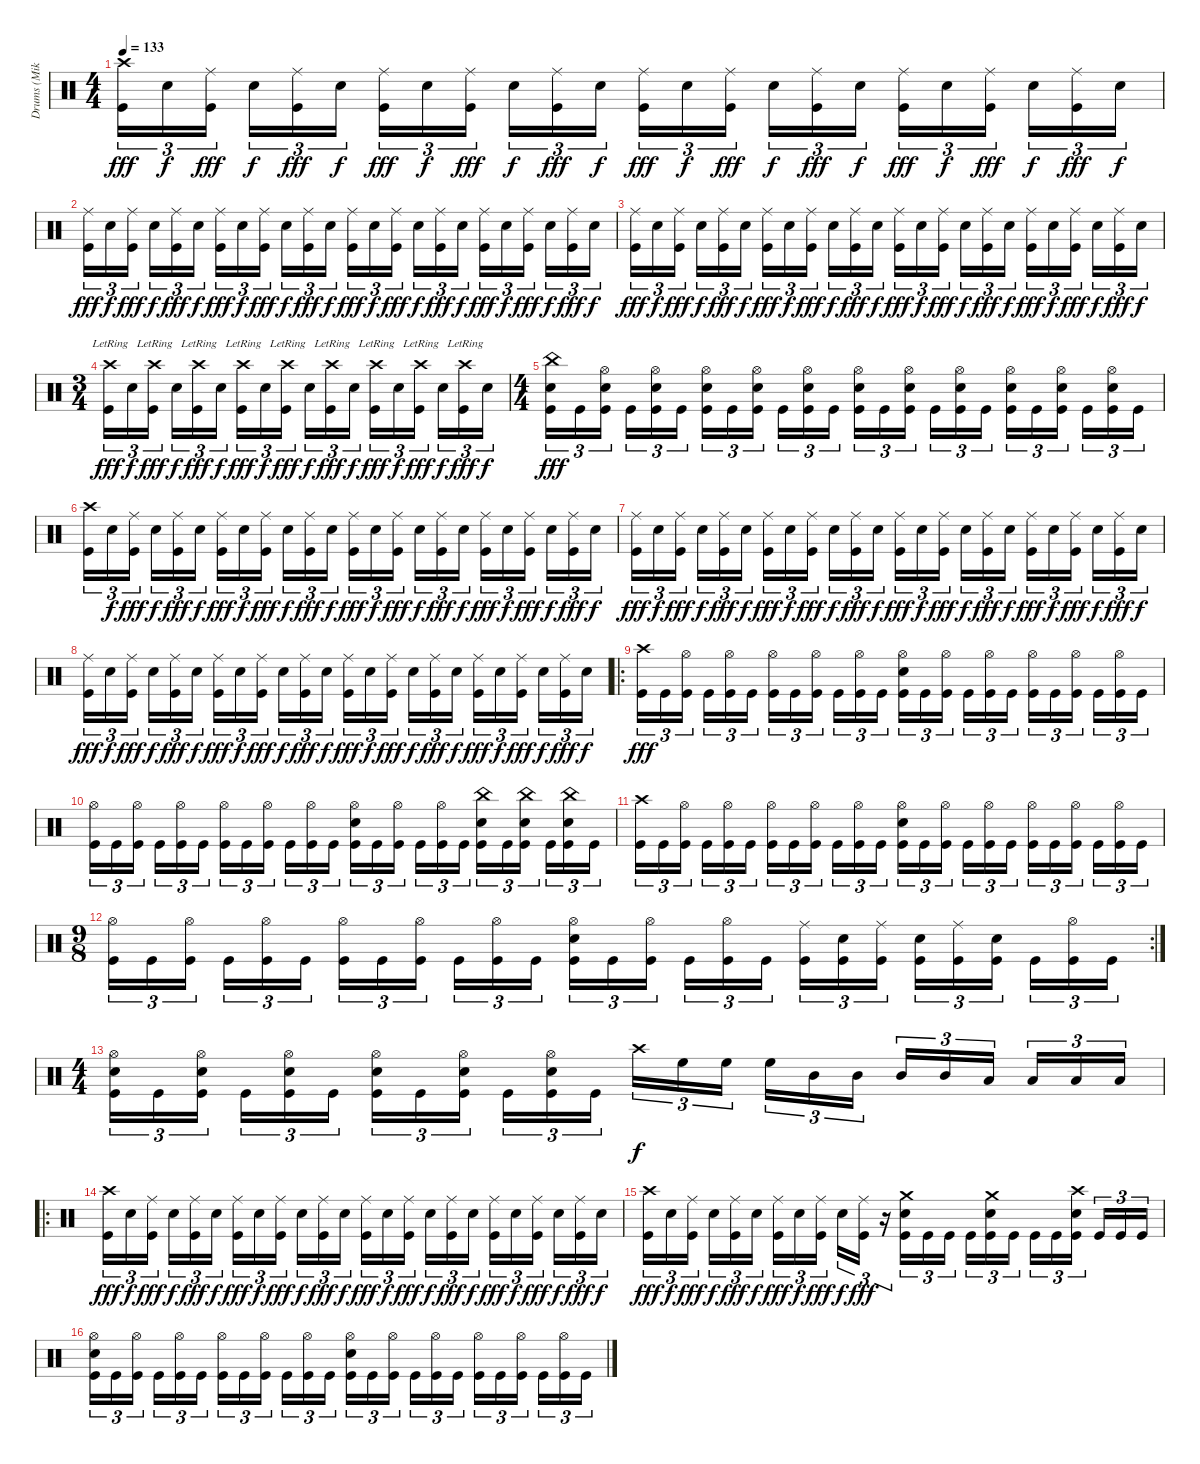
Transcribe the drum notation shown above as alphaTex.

\track ("Drums (Mike)" "Drums (Mik") {instrument percussion}
\staff {score}
\articulation defaults
\ts (4 4)
\tempo 133
\clef neutral
\ks c
("Crash high (hit)" "Kick (hit)").16{tu (3 2) dy fff} "Electric Snare (hit)".16{tu (3 2) dy f} ("Ride (middle)" "Kick (hit)").16{tu (3 2) dy fff} "Electric Snare (hit)".16{tu (3 2) dy f} ("Ride (middle)" "Kick (hit)").16{tu (3 2) dy fff} "Electric Snare (hit)".16{tu (3 2) dy f} ("Ride (middle)" "Kick (hit)").16{tu (3 2) dy fff} "Electric Snare (hit)".16{tu (3 2) dy f} ("Ride (middle)" "Kick (hit)").16{tu (3 2) dy fff} "Electric Snare (hit)".16{tu (3 2) dy f} ("Ride (middle)" "Kick (hit)").16{tu (3 2) dy fff} "Electric Snare (hit)".16{tu (3 2) dy f} ("Ride (middle)" "Kick (hit)").16{tu (3 2) dy fff} "Electric Snare (hit)".16{tu (3 2) dy f} ("Ride (middle)" "Kick (hit)").16{tu (3 2) dy fff} "Electric Snare (hit)".16{tu (3 2) dy f} ("Ride (middle)" "Kick (hit)").16{tu (3 2) dy fff} "Electric Snare (hit)".16{tu (3 2) dy f} ("Ride (middle)" "Kick (hit)").16{tu (3 2) dy fff} "Electric Snare (hit)".16{tu (3 2) dy f} ("Ride (middle)" "Kick (hit)").16{tu (3 2) dy fff} "Electric Snare (hit)".16{tu (3 2) dy f} ("Ride (middle)" "Kick (hit)").16{tu (3 2) dy fff} "Electric Snare (hit)".16{tu (3 2) dy f} |
("Ride (middle)" "Kick (hit)").16{tu (3 2) dy fff} "Electric Snare (hit)".16{tu (3 2) dy f} ("Ride (middle)" "Kick (hit)").16{tu (3 2) dy fff} "Electric Snare (hit)".16{tu (3 2) dy f} ("Ride (middle)" "Kick (hit)").16{tu (3 2) dy fff} "Electric Snare (hit)".16{tu (3 2) dy f} ("Ride (middle)" "Kick (hit)").16{tu (3 2) dy fff} "Electric Snare (hit)".16{tu (3 2) dy f} ("Ride (middle)" "Kick (hit)").16{tu (3 2) dy fff} "Electric Snare (hit)".16{tu (3 2) dy f} ("Ride (middle)" "Kick (hit)").16{tu (3 2) dy fff} "Electric Snare (hit)".16{tu (3 2) dy f} ("Ride (middle)" "Kick (hit)").16{tu (3 2) dy fff} "Electric Snare (hit)".16{tu (3 2) dy f} ("Ride (middle)" "Kick (hit)").16{tu (3 2) dy fff} "Electric Snare (hit)".16{tu (3 2) dy f} ("Ride (middle)" "Kick (hit)").16{tu (3 2) dy fff} "Electric Snare (hit)".16{tu (3 2) dy f} ("Ride (middle)" "Kick (hit)").16{tu (3 2) dy fff} "Electric Snare (hit)".16{tu (3 2) dy f} ("Ride (middle)" "Kick (hit)").16{tu (3 2) dy fff} "Electric Snare (hit)".16{tu (3 2) dy f} ("Ride (middle)" "Kick (hit)").16{tu (3 2) dy fff} "Electric Snare (hit)".16{tu (3 2) dy f} |
("Ride (middle)" "Kick (hit)").16{tu (3 2) dy fff} "Electric Snare (hit)".16{tu (3 2) dy f} ("Ride (middle)" "Kick (hit)").16{tu (3 2) dy fff} "Electric Snare (hit)".16{tu (3 2) dy f} ("Ride (middle)" "Kick (hit)").16{tu (3 2) dy fff} "Electric Snare (hit)".16{tu (3 2) dy f} ("Ride (middle)" "Kick (hit)").16{tu (3 2) dy fff} "Electric Snare (hit)".16{tu (3 2) dy f} ("Ride (middle)" "Kick (hit)").16{tu (3 2) dy fff} "Electric Snare (hit)".16{tu (3 2) dy f} ("Ride (middle)" "Kick (hit)").16{tu (3 2) dy fff} "Electric Snare (hit)".16{tu (3 2) dy f} ("Ride (middle)" "Kick (hit)").16{tu (3 2) dy fff} "Electric Snare (hit)".16{tu (3 2) dy f} ("Ride (middle)" "Kick (hit)").16{tu (3 2) dy fff} "Electric Snare (hit)".16{tu (3 2) dy f} ("Ride (middle)" "Kick (hit)").16{tu (3 2) dy fff} "Electric Snare (hit)".16{tu (3 2) dy f} ("Ride (middle)" "Kick (hit)").16{tu (3 2) dy fff} "Electric Snare (hit)".16{tu (3 2) dy f} ("Ride (middle)" "Kick (hit)").16{tu (3 2) dy fff} "Electric Snare (hit)".16{tu (3 2) dy f} ("Ride (middle)" "Kick (hit)").16{tu (3 2) dy fff} "Electric Snare (hit)".16{tu (3 2) dy f} |
\ts (3 4)
("Crash high (hit)"{lr} "Kick (hit)").16{tu (3 2) dy fff} "Electric Snare (hit)".16{tu (3 2) dy f} ("Crash high (hit)"{lr} "Kick (hit)").16{tu (3 2) dy fff} "Electric Snare (hit)".16{tu (3 2) dy f} ("Crash high (hit)"{lr} "Kick (hit)").16{tu (3 2) dy fff} "Electric Snare (hit)".16{tu (3 2) dy f} ("Crash high (hit)"{lr} "Kick (hit)").16{tu (3 2) dy fff} "Electric Snare (hit)".16{tu (3 2) dy f} ("Crash high (hit)"{lr} "Kick (hit)").16{tu (3 2) dy fff} "Electric Snare (hit)".16{tu (3 2) dy f} ("Crash high (hit)"{lr} "Kick (hit)").16{tu (3 2) dy fff} "Electric Snare (hit)".16{tu (3 2) dy f} ("Crash high (hit)"{lr} "Kick (hit)").16{tu (3 2) dy fff} "Electric Snare (hit)".16{tu (3 2) dy f} ("Crash high (hit)"{lr} "Kick (hit)").16{tu (3 2) dy fff} "Electric Snare (hit)".16{tu (3 2) dy f} ("Crash high (hit)"{lr} "Kick (hit)").16{tu (3 2) dy fff} "Electric Snare (hit)".16{tu (3 2) dy f} |
\ts (4 4)
("China (hit)" "Electric Snare (hit)" "Kick (hit)").16{tu (3 2) dy fff} "Kick (hit)".16{tu (3 2)} ("Hi-Hat (open)" "Electric Snare (hit)" "Kick (hit)").16{tu (3 2)} "Kick (hit)".16{tu (3 2)} ("Hi-Hat (open)" "Electric Snare (hit)" "Kick (hit)").16{tu (3 2)} "Kick (hit)".16{tu (3 2)} ("Hi-Hat (open)" "Electric Snare (hit)" "Kick (hit)").16{tu (3 2)} "Kick (hit)".16{tu (3 2)} ("Hi-Hat (open)" "Electric Snare (hit)" "Kick (hit)").16{tu (3 2)} "Kick (hit)".16{tu (3 2)} ("Hi-Hat (open)" "Electric Snare (hit)" "Kick (hit)").16{tu (3 2)} "Kick (hit)".16{tu (3 2)} ("Hi-Hat (open)" "Electric Snare (hit)" "Kick (hit)").16{tu (3 2)} "Kick (hit)".16{tu (3 2)} ("Hi-Hat (open)" "Electric Snare (hit)" "Kick (hit)").16{tu (3 2)} "Kick (hit)".16{tu (3 2)} ("Hi-Hat (open)" "Electric Snare (hit)" "Kick (hit)").16{tu (3 2)} "Kick (hit)".16{tu (3 2)} ("Hi-Hat (open)" "Electric Snare (hit)" "Kick (hit)").16{tu (3 2)} "Kick (hit)".16{tu (3 2)} ("Hi-Hat (open)" "Electric Snare (hit)" "Kick (hit)").16{tu (3 2)} "Kick (hit)".16{tu (3 2)} ("Hi-Hat (open)" "Electric Snare (hit)" "Kick (hit)").16{tu (3 2)} "Kick (hit)".16{tu (3 2)} |
("Crash high (hit)" "Kick (hit)").16{tu (3 2)} "Electric Snare (hit)".16{tu (3 2) dy f} ("Ride (middle)" "Kick (hit)").16{tu (3 2) dy fff} "Electric Snare (hit)".16{tu (3 2) dy f} ("Ride (middle)" "Kick (hit)").16{tu (3 2) dy fff} "Electric Snare (hit)".16{tu (3 2) dy f} ("Ride (middle)" "Kick (hit)").16{tu (3 2) dy fff} "Electric Snare (hit)".16{tu (3 2) dy f} ("Ride (middle)" "Kick (hit)").16{tu (3 2) dy fff} "Electric Snare (hit)".16{tu (3 2) dy f} ("Ride (middle)" "Kick (hit)").16{tu (3 2) dy fff} "Electric Snare (hit)".16{tu (3 2) dy f} ("Ride (middle)" "Kick (hit)").16{tu (3 2) dy fff} "Electric Snare (hit)".16{tu (3 2) dy f} ("Ride (middle)" "Kick (hit)").16{tu (3 2) dy fff} "Electric Snare (hit)".16{tu (3 2) dy f} ("Ride (middle)" "Kick (hit)").16{tu (3 2) dy fff} "Electric Snare (hit)".16{tu (3 2) dy f} ("Ride (middle)" "Kick (hit)").16{tu (3 2) dy fff} "Electric Snare (hit)".16{tu (3 2) dy f} ("Ride (middle)" "Kick (hit)").16{tu (3 2) dy fff} "Electric Snare (hit)".16{tu (3 2) dy f} ("Ride (middle)" "Kick (hit)").16{tu (3 2) dy fff} "Electric Snare (hit)".16{tu (3 2) dy f} |
("Ride (middle)" "Kick (hit)").16{tu (3 2) dy fff} "Electric Snare (hit)".16{tu (3 2) dy f} ("Ride (middle)" "Kick (hit)").16{tu (3 2) dy fff} "Electric Snare (hit)".16{tu (3 2) dy f} ("Ride (middle)" "Kick (hit)").16{tu (3 2) dy fff} "Electric Snare (hit)".16{tu (3 2) dy f} ("Ride (middle)" "Kick (hit)").16{tu (3 2) dy fff} "Electric Snare (hit)".16{tu (3 2) dy f} ("Ride (middle)" "Kick (hit)").16{tu (3 2) dy fff} "Electric Snare (hit)".16{tu (3 2) dy f} ("Ride (middle)" "Kick (hit)").16{tu (3 2) dy fff} "Electric Snare (hit)".16{tu (3 2) dy f} ("Ride (middle)" "Kick (hit)").16{tu (3 2) dy fff} "Electric Snare (hit)".16{tu (3 2) dy f} ("Ride (middle)" "Kick (hit)").16{tu (3 2) dy fff} "Electric Snare (hit)".16{tu (3 2) dy f} ("Ride (middle)" "Kick (hit)").16{tu (3 2) dy fff} "Electric Snare (hit)".16{tu (3 2) dy f} ("Ride (middle)" "Kick (hit)").16{tu (3 2) dy fff} "Electric Snare (hit)".16{tu (3 2) dy f} ("Ride (middle)" "Kick (hit)").16{tu (3 2) dy fff} "Electric Snare (hit)".16{tu (3 2) dy f} ("Ride (middle)" "Kick (hit)").16{tu (3 2) dy fff} "Electric Snare (hit)".16{tu (3 2) dy f} |
("Ride (middle)" "Kick (hit)").16{tu (3 2) dy fff} "Electric Snare (hit)".16{tu (3 2) dy f} ("Ride (middle)" "Kick (hit)").16{tu (3 2) dy fff} "Electric Snare (hit)".16{tu (3 2) dy f} ("Ride (middle)" "Kick (hit)").16{tu (3 2) dy fff} "Electric Snare (hit)".16{tu (3 2) dy f} ("Ride (middle)" "Kick (hit)").16{tu (3 2) dy fff} "Electric Snare (hit)".16{tu (3 2) dy f} ("Ride (middle)" "Kick (hit)").16{tu (3 2) dy fff} "Electric Snare (hit)".16{tu (3 2) dy f} ("Ride (middle)" "Kick (hit)").16{tu (3 2) dy fff} "Electric Snare (hit)".16{tu (3 2) dy f} ("Ride (middle)" "Kick (hit)").16{tu (3 2) dy fff} "Electric Snare (hit)".16{tu (3 2) dy f} ("Ride (middle)" "Kick (hit)").16{tu (3 2) dy fff} "Electric Snare (hit)".16{tu (3 2) dy f} ("Ride (middle)" "Kick (hit)").16{tu (3 2) dy fff} "Electric Snare (hit)".16{tu (3 2) dy f} ("Ride (middle)" "Kick (hit)").16{tu (3 2) dy fff} "Electric Snare (hit)".16{tu (3 2) dy f} ("Ride (middle)" "Kick (hit)").16{tu (3 2) dy fff} "Electric Snare (hit)".16{tu (3 2) dy f} ("Ride (middle)" "Kick (hit)").16{tu (3 2) dy fff} "Electric Snare (hit)".16{tu (3 2) dy f} |
\ro
("Crash high (hit)" "Kick (hit)").16{tu (3 2) dy fff} "Kick (hit)".16{tu (3 2)} ("Hi-Hat (open)" "Kick (hit)").16{tu (3 2)} "Kick (hit)".16{tu (3 2)} ("Hi-Hat (open)" "Kick (hit)").16{tu (3 2)} "Kick (hit)".16{tu (3 2)} ("Hi-Hat (open)" "Kick (hit)").16{tu (3 2)} "Kick (hit)".16{tu (3 2)} ("Hi-Hat (open)" "Kick (hit)").16{tu (3 2)} "Kick (hit)".16{tu (3 2)} ("Hi-Hat (open)" "Kick (hit)").16{tu (3 2)} "Kick (hit)".16{tu (3 2)} ("Hi-Hat (open)" "Electric Snare (hit)" "Kick (hit)").16{tu (3 2)} "Kick (hit)".16{tu (3 2)} ("Hi-Hat (open)" "Kick (hit)").16{tu (3 2)} "Kick (hit)".16{tu (3 2)} ("Hi-Hat (open)" "Kick (hit)").16{tu (3 2)} "Kick (hit)".16{tu (3 2)} ("Hi-Hat (open)" "Kick (hit)").16{tu (3 2)} "Kick (hit)".16{tu (3 2)} ("Hi-Hat (open)" "Kick (hit)").16{tu (3 2)} "Kick (hit)".16{tu (3 2)} ("Hi-Hat (open)" "Kick (hit)").16{tu (3 2)} "Kick (hit)".16{tu (3 2)} |
("Hi-Hat (open)" "Kick (hit)").16{tu (3 2)} "Kick (hit)".16{tu (3 2)} ("Hi-Hat (open)" "Kick (hit)").16{tu (3 2)} "Kick (hit)".16{tu (3 2)} ("Hi-Hat (open)" "Kick (hit)").16{tu (3 2)} "Kick (hit)".16{tu (3 2)} ("Hi-Hat (open)" "Kick (hit)").16{tu (3 2)} "Kick (hit)".16{tu (3 2)} ("Hi-Hat (open)" "Kick (hit)").16{tu (3 2)} "Kick (hit)".16{tu (3 2)} ("Hi-Hat (open)" "Kick (hit)").16{tu (3 2)} "Kick (hit)".16{tu (3 2)} ("Hi-Hat (open)" "Electric Snare (hit)" "Kick (hit)").16{tu (3 2)} "Kick (hit)".16{tu (3 2)} ("Hi-Hat (open)" "Kick (hit)").16{tu (3 2)} "Kick (hit)".16{tu (3 2)} ("Hi-Hat (open)" "Kick (hit)").16{tu (3 2)} "Kick (hit)".16{tu (3 2)} ("China (hit)" "Electric Snare (hit)" "Kick (hit)").16{tu (3 2)} "Kick (hit)".16{tu (3 2)} ("China (hit)" "Electric Snare (hit)" "Kick (hit)").16{tu (3 2)} "Kick (hit)".16{tu (3 2)} ("China (hit)" "Electric Snare (hit)" "Kick (hit)").16{tu (3 2)} "Kick (hit)".16{tu (3 2)} |
("Crash high (hit)" "Kick (hit)").16{tu (3 2)} "Kick (hit)".16{tu (3 2)} ("Hi-Hat (open)" "Kick (hit)").16{tu (3 2)} "Kick (hit)".16{tu (3 2)} ("Hi-Hat (open)" "Kick (hit)").16{tu (3 2)} "Kick (hit)".16{tu (3 2)} ("Hi-Hat (open)" "Kick (hit)").16{tu (3 2)} "Kick (hit)".16{tu (3 2)} ("Hi-Hat (open)" "Kick (hit)").16{tu (3 2)} "Kick (hit)".16{tu (3 2)} ("Hi-Hat (open)" "Kick (hit)").16{tu (3 2)} "Kick (hit)".16{tu (3 2)} ("Hi-Hat (open)" "Electric Snare (hit)" "Kick (hit)").16{tu (3 2)} "Kick (hit)".16{tu (3 2)} ("Hi-Hat (open)" "Kick (hit)").16{tu (3 2)} "Kick (hit)".16{tu (3 2)} ("Hi-Hat (open)" "Kick (hit)").16{tu (3 2)} "Kick (hit)".16{tu (3 2)} ("Hi-Hat (open)" "Kick (hit)").16{tu (3 2)} "Kick (hit)".16{tu (3 2)} ("Hi-Hat (open)" "Kick (hit)").16{tu (3 2)} "Kick (hit)".16{tu (3 2)} ("Hi-Hat (open)" "Kick (hit)").16{tu (3 2)} "Kick (hit)".16{tu (3 2)} |
\rc 2
\ts (9 8)
("Hi-Hat (open)" "Kick (hit)").16{tu (3 2)} "Kick (hit)".16{tu (3 2)} ("Hi-Hat (open)" "Kick (hit)").16{tu (3 2)} "Kick (hit)".16{tu (3 2)} ("Hi-Hat (open)" "Kick (hit)").16{tu (3 2)} "Kick (hit)".16{tu (3 2)} ("Hi-Hat (open)" "Kick (hit)").16{tu (3 2)} "Kick (hit)".16{tu (3 2)} ("Hi-Hat (open)" "Kick (hit)").16{tu (3 2)} "Kick (hit)".16{tu (3 2)} ("Hi-Hat (open)" "Kick (hit)").16{tu (3 2)} "Kick (hit)".16{tu (3 2)} ("Hi-Hat (open)" "Electric Snare (hit)" "Kick (hit)").16{tu (3 2)} "Kick (hit)".16{tu (3 2)} ("Hi-Hat (open)" "Kick (hit)").16{tu (3 2)} "Kick (hit)".16{tu (3 2)} ("Hi-Hat (open)" "Kick (hit)").16{tu (3 2)} "Kick (hit)".16{tu (3 2)} ("Ride (middle)" "Kick (hit)").16{tu (3 2)} ("Electric Snare (hit)" "Kick (hit)").16{tu (3 2)} ("Ride (middle)" "Kick (hit)").16{tu (3 2)} ("Electric Snare (hit)" "Kick (hit)").16{tu (3 2)} ("Ride (middle)" "Kick (hit)").16{tu (3 2)} ("Electric Snare (hit)" "Kick (hit)").16{tu (3 2)} "Kick (hit)".16{tu (3 2)} ("Hi-Hat (open)" "Kick (hit)").16{tu (3 2)} "Kick (hit)".16{tu (3 2)} |
\ts (4 4)
("Hi-Hat (open)" "Electric Snare (hit)" "Kick (hit)").16{tu (3 2)} "Kick (hit)".16{tu (3 2)} ("Hi-Hat (open)" "Electric Snare (hit)" "Kick (hit)").16{tu (3 2)} "Kick (hit)".16{tu (3 2)} ("Hi-Hat (open)" "Electric Snare (hit)" "Kick (hit)").16{tu (3 2)} "Kick (hit)".16{tu (3 2)} ("Hi-Hat (open)" "Electric Snare (hit)" "Kick (hit)").16{tu (3 2)} "Kick (hit)".16{tu (3 2)} ("Hi-Hat (open)" "Electric Snare (hit)" "Kick (hit)").16{tu (3 2)} "Kick (hit)".16{tu (3 2)} ("Hi-Hat (open)" "Electric Snare (hit)" "Kick (hit)").16{tu (3 2)} "Kick (hit)".16{tu (3 2)} "Crash high (hit)".16{tu (3 2) dy f} "High Floor Tom (hit)".16{tu (3 2)} "High Floor Tom (hit)".16{tu (3 2)} "High Floor Tom (hit)".16{tu (3 2)} "Mid Tom (hit)".16{tu (3 2)} "Mid Tom (hit)".16{tu (3 2)} "Mid Tom (hit)".16{tu (3 2)} "Mid Tom (hit)".16{tu (3 2)} "Low Tom (hit)".16{tu (3 2)} "Low Tom (hit)".16{tu (3 2)} "Low Tom (hit)".16{tu (3 2)} "Low Tom (hit)".16{tu (3 2)} |
\ro
("Crash high (hit)" "Kick (hit)").16{tu (3 2) dy fff} "Electric Snare (hit)".16{tu (3 2) dy f} ("Ride (middle)" "Kick (hit)").16{tu (3 2) dy fff} "Electric Snare (hit)".16{tu (3 2) dy f} ("Ride (middle)" "Kick (hit)").16{tu (3 2) dy fff} "Electric Snare (hit)".16{tu (3 2) dy f} ("Ride (middle)" "Kick (hit)").16{tu (3 2) dy fff} "Electric Snare (hit)".16{tu (3 2) dy f} ("Ride (middle)" "Kick (hit)").16{tu (3 2) dy fff} "Electric Snare (hit)".16{tu (3 2) dy f} ("Ride (middle)" "Kick (hit)").16{tu (3 2) dy fff} "Electric Snare (hit)".16{tu (3 2) dy f} ("Ride (middle)" "Kick (hit)").16{tu (3 2) dy fff} "Electric Snare (hit)".16{tu (3 2) dy f} ("Ride (middle)" "Kick (hit)").16{tu (3 2) dy fff} "Electric Snare (hit)".16{tu (3 2) dy f} ("Ride (middle)" "Kick (hit)").16{tu (3 2) dy fff} "Electric Snare (hit)".16{tu (3 2) dy f} ("Ride (middle)" "Kick (hit)").16{tu (3 2) dy fff} "Electric Snare (hit)".16{tu (3 2) dy f} ("Ride (middle)" "Kick (hit)").16{tu (3 2) dy fff} "Electric Snare (hit)".16{tu (3 2) dy f} ("Ride (middle)" "Kick (hit)").16{tu (3 2) dy fff} "Electric Snare (hit)".16{tu (3 2) dy f} |
("Crash high (hit)" "Kick (hit)").16{tu (3 2) dy fff} "Electric Snare (hit)".16{tu (3 2) dy f} ("Ride (middle)" "Kick (hit)").16{tu (3 2) dy fff} "Electric Snare (hit)".16{tu (3 2) dy f} ("Ride (middle)" "Kick (hit)").16{tu (3 2) dy fff} "Electric Snare (hit)".16{tu (3 2) dy f} ("Ride (middle)" "Kick (hit)").16{tu (3 2) dy fff} "Electric Snare (hit)".16{tu (3 2) dy f} ("Ride (middle)" "Kick (hit)").16{tu (3 2) dy fff} "Electric Snare (hit)".16{tu (3 2) dy f} ("Ride (middle)" "Kick (hit)").16{tu (3 2) dy fff} r.16{tu (3 2)} ("Crash medium (hit)" "Electric Snare (hit)" "Kick (hit)").16{tu (3 2)} "Kick (hit)".16{tu (3 2)} "Kick (hit)".16{tu (3 2)} "Kick (hit)".16{tu (3 2)} ("Crash medium (hit)" "Electric Snare (hit)" "Kick (hit)").16{tu (3 2)} "Kick (hit)".16{tu (3 2)} "Kick (hit)".16{tu (3 2)} "Kick (hit)".16{tu (3 2)} ("Crash high (hit)" "Electric Snare (hit)" "Kick (hit)").16{tu (3 2)} "Kick (hit)".16{tu (3 2)} "Kick (hit)".16{tu (3 2)} "Kick (hit)".16{tu (3 2)} |
("Hi-Hat (open)" "Electric Snare (hit)" "Kick (hit)").16{tu (3 2)} "Kick (hit)".16{tu (3 2)} ("Hi-Hat (open)" "Kick (hit)").16{tu (3 2)} "Kick (hit)".16{tu (3 2)} ("Hi-Hat (open)" "Kick (hit)").16{tu (3 2)} "Kick (hit)".16{tu (3 2)} ("Hi-Hat (open)" "Kick (hit)").16{tu (3 2)} "Kick (hit)".16{tu (3 2)} ("Hi-Hat (open)" "Kick (hit)").16{tu (3 2)} "Kick (hit)".16{tu (3 2)} ("Hi-Hat (open)" "Kick (hit)").16{tu (3 2)} "Kick (hit)".16{tu (3 2)} ("Hi-Hat (open)" "Electric Snare (hit)" "Kick (hit)").16{tu (3 2)} "Kick (hit)".16{tu (3 2)} ("Hi-Hat (open)" "Kick (hit)").16{tu (3 2)} "Kick (hit)".16{tu (3 2)} ("Hi-Hat (open)" "Kick (hit)").16{tu (3 2)} "Kick (hit)".16{tu (3 2)} ("Hi-Hat (open)" "Kick (hit)").16{tu (3 2)} "Kick (hit)".16{tu (3 2)} ("Hi-Hat (open)" "Kick (hit)").16{tu (3 2)} "Kick (hit)".16{tu (3 2)} ("Hi-Hat (open)" "Kick (hit)").16{tu (3 2)} "Kick (hit)".16{tu (3 2)}
